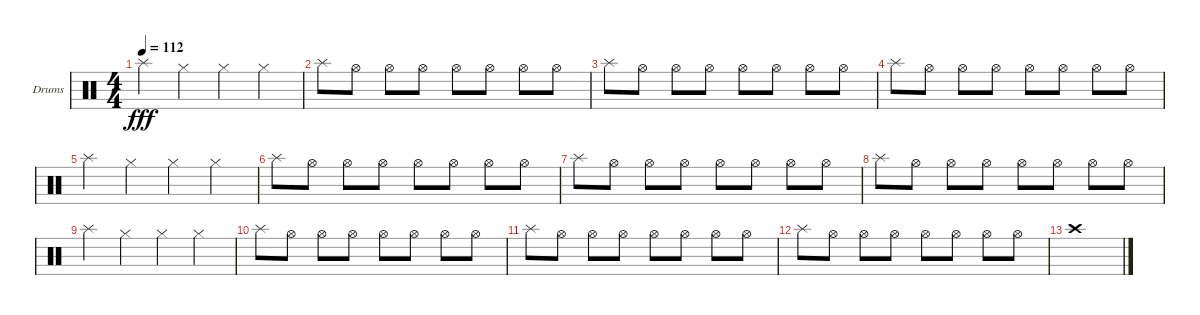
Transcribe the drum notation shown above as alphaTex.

\defaultSystemsLayout 4
\bracketExtendMode groupsimilarinstruments
\firstSystemTrackNameOrientation horizontal
\otherSystemsTrackNameOrientation horizontal
\track ("Пашок" "Drums") {instrument percussion}
\staff {score}
\articulation defaults
\ts (4 4)
\tempo 112
\clef neutral
\ks c "Splash (hit)".4{dy fff} "Hi-Hat (closed)".4 "Hi-Hat (closed)".4 "Hi-Hat (closed)".4
|
"Splash (hit)".8 "Hi-Hat (open)".8 "Hi-Hat (open)".8 "Hi-Hat (open)".8 "Hi-Hat (open)".8 "Hi-Hat (open)".8 "Hi-Hat (open)".8 "Hi-Hat (open)".8 |
"Splash (hit)".8 "Hi-Hat (open)".8 "Hi-Hat (open)".8 "Hi-Hat (open)".8 "Hi-Hat (open)".8 "Hi-Hat (open)".8 "Hi-Hat (open)".8 "Hi-Hat (open)".8 |
"Splash (hit)".8 "Hi-Hat (open)".8 "Hi-Hat (open)".8 "Hi-Hat (open)".8 "Hi-Hat (open)".8 "Hi-Hat (open)".8 "Hi-Hat (open)".8 "Hi-Hat (open)".8 |
"Splash (hit)".4 "Hi-Hat (closed)".4 "Hi-Hat (closed)".4 "Hi-Hat (closed)".4 |
"Splash (hit)".8 "Hi-Hat (open)".8 "Hi-Hat (open)".8 "Hi-Hat (open)".8 "Hi-Hat (open)".8 "Hi-Hat (open)".8 "Hi-Hat (open)".8 "Hi-Hat (open)".8 |
"Splash (hit)".8 "Hi-Hat (open)".8 "Hi-Hat (open)".8 "Hi-Hat (open)".8 "Hi-Hat (open)".8 "Hi-Hat (open)".8 "Hi-Hat (open)".8 "Hi-Hat (open)".8 |
"Splash (hit)".8 "Hi-Hat (open)".8 "Hi-Hat (open)".8 "Hi-Hat (open)".8 "Hi-Hat (open)".8 "Hi-Hat (open)".8 "Hi-Hat (open)".8 "Hi-Hat (open)".8 |
"Splash (hit)".4 "Hi-Hat (closed)".4 "Hi-Hat (closed)".4 "Hi-Hat (closed)".4 |
"Splash (hit)".8 "Hi-Hat (open)".8 "Hi-Hat (open)".8 "Hi-Hat (open)".8 "Hi-Hat (open)".8 "Hi-Hat (open)".8 "Hi-Hat (open)".8 "Hi-Hat (open)".8 |
"Splash (hit)".8 "Hi-Hat (open)".8 "Hi-Hat (open)".8 "Hi-Hat (open)".8 "Hi-Hat (open)".8 "Hi-Hat (open)".8 "Hi-Hat (open)".8 "Hi-Hat (open)".8 |
"Splash (hit)".8 "Hi-Hat (open)".8 "Hi-Hat (open)".8 "Hi-Hat (open)".8 "Hi-Hat (open)".8 "Hi-Hat (open)".8 "Hi-Hat (open)".8 "Hi-Hat (open)".8 |
"Crash high (hit)".1
